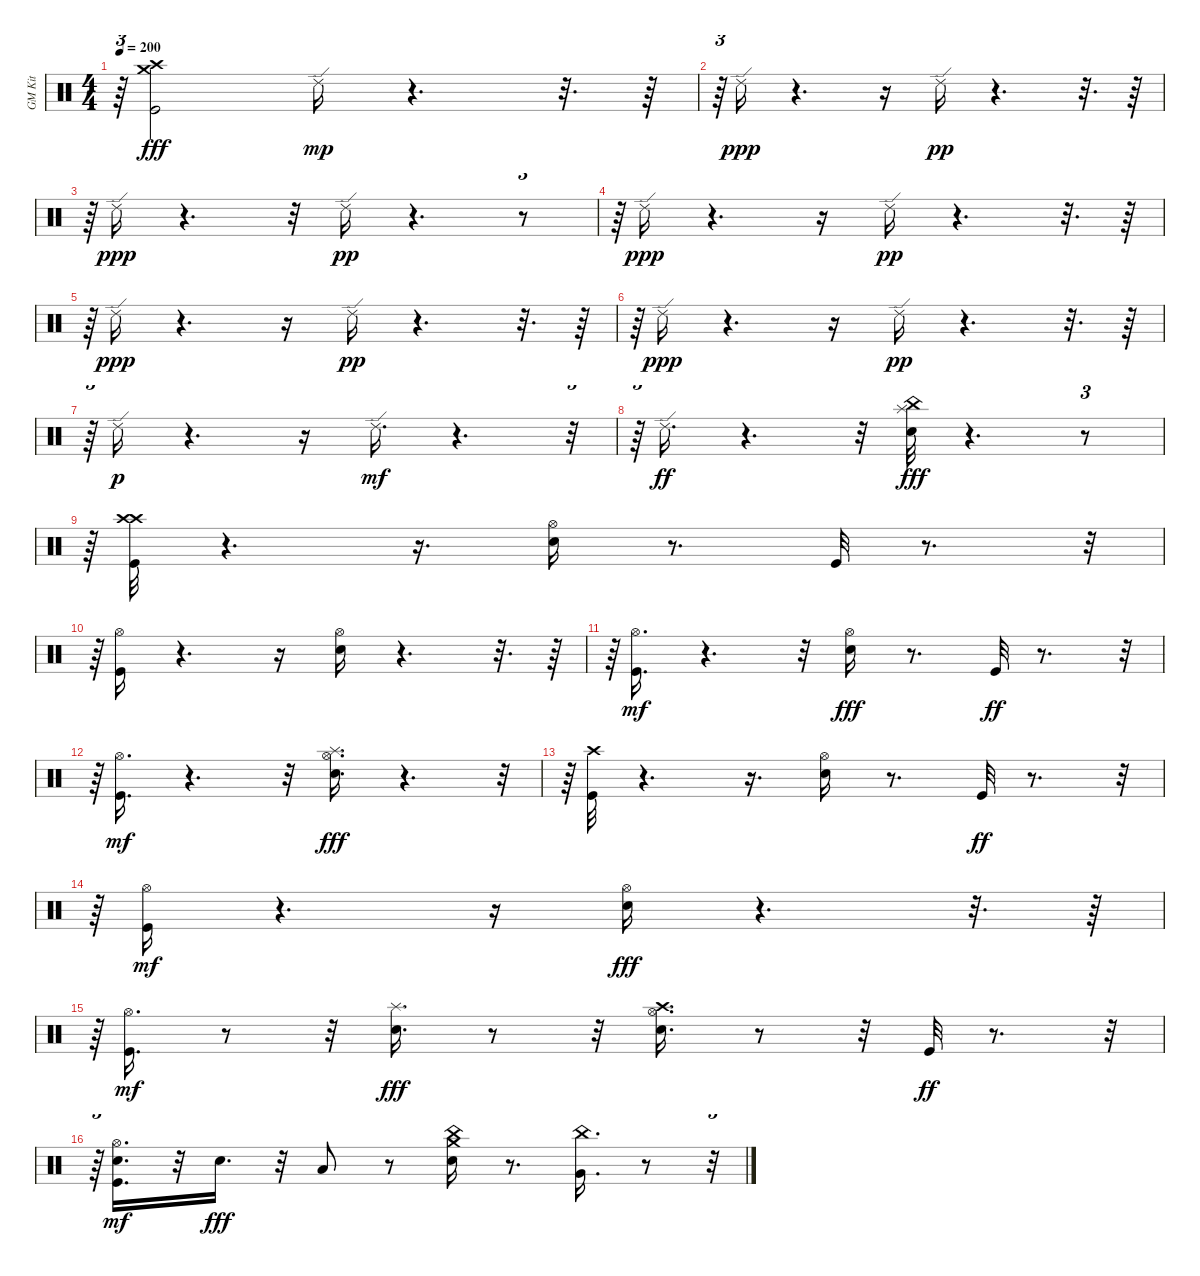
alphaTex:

\track ("GM Kit" "GM Kit") {instrument percussion}
\staff {score}
\articulation defaults
\ts (4 4)
\tempo 200
\clef neutral
\ks c
r.64{tu (3 2) dy fff} ("Kick (hit)" "Crash high (hit)" "Crash medium (hit)").2 "Ride (edge) 2".16{dy mp} r.4{d} r.32{d} r.64 |
r.64{tu (3 2)} "Ride (edge) 2".16{dy ppp} r.4{d} r.16 "Ride (edge) 2".16{dy pp} r.4{d} r.32{d} r.64 |
r.64{tu (3 2)} "Ride (edge) 2".16{dy ppp} r.4{d} r.32 "Ride (edge) 2".16{dy pp} r.4{d} r.8{tu (3 2)} |
r.64{tu (3 2)} "Ride (edge) 2".16{dy ppp} r.4{d} r.16 "Ride (edge) 2".16{dy pp} r.4{d} r.32{d} r.64 |
r.64{tu (3 2)} "Ride (edge) 2".16{dy ppp} r.4{d} r.16 "Ride (edge) 2".16{dy pp} r.4{d} r.32{d} r.64 |
r.64{tu (3 2)} "Ride (edge) 2".16{dy ppp} r.4{d} r.16 "Ride (edge) 2".16{dy pp} r.4{d} r.32{d} r.64 |
r.64{tu (3 2)} "Ride (edge) 2".16{dy p} r.4{d} r.16 "Ride (edge) 2".16{d dy mf} r.4{d} r.32{tu (3 2)} |
r.64{tu (3 2)} "Ride (edge) 2".16{d dy ff} r.4{d} r.32 ("Snare (hit) 2" "China (hit)" "Splash (hit)").32{dy fff} r.4{d} r.8{tu (3 2)} |
r.64{tu (3 2)} ("Kick (hit)" "Crash high (hit)" "Crash high (hit)").32 r.4{d} r.16{d} ("Snare (hit) 2" "Hi-Hat (open)").16 r.8{d} "Kick (hit)".32 r.8{d} r.32{tu (3 2)} |
r.64{tu (3 2)} ("Kick (hit)" "Hi-Hat (open)").16 r.4{d} r.16 ("Snare (hit) 2" "Hi-Hat (open)").16 r.4{d} r.32{d} r.64 |
r.64{tu (3 2)} ("Kick (hit)" "Hi-Hat (open)").16{d dy mf} r.4{d} r.32 ("Snare (hit) 2" "Hi-Hat (open)").16{dy fff} r.8{d} "Kick (hit)".32{dy ff} r.8{d} r.32{tu (3 2)} |
r.64{tu (3 2)} ("Kick (hit)" "Hi-Hat (open)").16{d dy mf} r.4{d} r.32 ("Snare (hit) 2" "Hi-Hat (open)" "Splash (hit)").16{d dy fff} r.4{d} r.32{tu (3 2)} |
r.64{tu (3 2)} ("Kick (hit)" "Crash high (hit)").32 r.4{d} r.16{d} ("Snare (hit) 2" "Hi-Hat (open)").16 r.8{d} "Kick (hit)".32{dy ff} r.8{d} r.32{tu (3 2)} |
r.64{tu (3 2)} ("Kick (hit)" "Hi-Hat (open)").16{dy mf} r.4{d} r.16 ("Snare (hit) 2" "Hi-Hat (open)").16{dy fff} r.4{d} r.32{d} r.64 |
r.64{tu (3 2)} ("Kick (hit)" "Hi-Hat (open)").16{d dy mf} r.8 r.32 ("Snare (hit) 2" "Splash (hit)").16{d dy fff} r.8 r.32 ("Snare (hit) 2" "Hi-Hat (open)" "Crash high (hit)").16{d} r.8 r.32 "Kick (hit)".32{dy ff} r.8{d} r.32{tu (3 2)} |
r.64{tu (3 2)} ("Kick (hit)" "Snare (hit) 2" "Hi-Hat (open)").16{d dy mf} r.32 "Snare (hit) 2".16{d dy fff} r.32 "Low Tom (hit)".8 r.8 ("Snare (hit) 2" "China (hit)" "Crash medium (hit)").16 r.8{d} ("Very Low Tom (hit)" "China (hit)").16{d} r.8 r.32{tu (3 2)}
